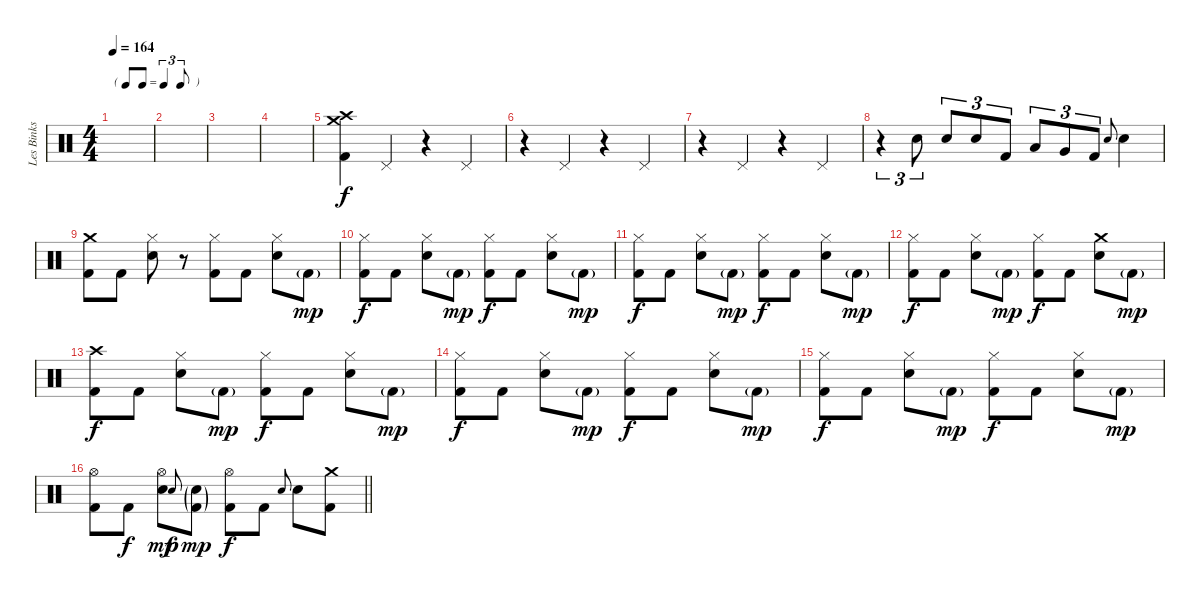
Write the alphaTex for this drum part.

\track ("Les Binks" "Les Binks") {instrument percussion}
\staff {score}
\articulation defaults
\ts (4 4)
\tf triplet8th
\tempo 164
\clef neutral
\ks c
|
|
|
|
("Crash high (hit)" "Crash medium (hit)" "Kick (hit) 2").4 "Pedal Hi-Hat (hit)".4 r.4 "Pedal Hi-Hat (hit)".4 |
r.4 "Pedal Hi-Hat (hit)".4 r.4 "Pedal Hi-Hat (hit)".4 |
r.4 "Pedal Hi-Hat (hit)".4 r.4 "Pedal Hi-Hat (hit)".4 |
r.4{tu (3 2)} "Electric Snare (hit)".8{tu (3 2)} "Electric Snare (hit)".8{tu (3 2)} "Electric Snare (hit)".8{tu (3 2)} "Kick (hit) 2".8{tu (3 2)} "Low Tom (hit)".8{tu (3 2)} "Very Low Tom (hit)".8{tu (3 2)} "Kick (hit) 2".8{tu (3 2)} "Electric Snare (hit)".8{gr onbeat} "Electric Snare (hit)".4 |
("Crash medium (hit)" "Kick (hit) 2").8 "Kick (hit) 2".8 ("Hi-Hat (closed)" "Electric Snare (hit)").8 r.8 ("Hi-Hat (closed)" "Kick (hit) 2").8 "Kick (hit) 2".8 ("Hi-Hat (closed)" "Electric Snare (hit)").8 "Kick (hit) 2"{g}.8{dy mp} |
("Hi-Hat (closed)" "Kick (hit) 2").8{dy f} "Kick (hit) 2".8 ("Hi-Hat (closed)" "Electric Snare (hit)").8 "Kick (hit) 2"{g}.8{dy mp} ("Hi-Hat (closed)" "Kick (hit) 2").8{dy f} "Kick (hit) 2".8 ("Hi-Hat (closed)" "Electric Snare (hit)").8 "Kick (hit) 2"{g}.8{dy mp} |
("Hi-Hat (closed)" "Kick (hit) 2").8{dy f} "Kick (hit) 2".8 ("Hi-Hat (closed)" "Electric Snare (hit)").8 "Kick (hit) 2"{g}.8{dy mp} ("Hi-Hat (closed)" "Kick (hit) 2").8{dy f} "Kick (hit) 2".8 ("Hi-Hat (closed)" "Electric Snare (hit)").8 "Kick (hit) 2"{g}.8{dy mp} |
("Hi-Hat (closed)" "Kick (hit) 2").8{dy f} "Kick (hit) 2".8 ("Hi-Hat (closed)" "Electric Snare (hit)").8 "Kick (hit) 2"{g}.8{dy mp} ("Hi-Hat (closed)" "Kick (hit) 2").8{dy f} "Kick (hit) 2".8 ("Crash medium (hit)" "Electric Snare (hit)").8 "Kick (hit) 2"{g}.8{dy mp} |
("Crash high (hit)" "Kick (hit) 2").8{dy f} "Kick (hit) 2".8 ("Hi-Hat (closed)" "Electric Snare (hit)").8 "Kick (hit) 2"{g}.8{dy mp} ("Hi-Hat (closed)" "Kick (hit) 2").8{dy f} "Kick (hit) 2".8 ("Hi-Hat (closed)" "Electric Snare (hit)").8 "Kick (hit) 2"{g}.8{dy mp} |
("Hi-Hat (closed)" "Kick (hit) 2").8{dy f} "Kick (hit) 2".8 ("Hi-Hat (closed)" "Electric Snare (hit)").8 "Kick (hit) 2"{g}.8{dy mp} ("Hi-Hat (closed)" "Kick (hit) 2").8{dy f} "Kick (hit) 2".8 ("Hi-Hat (closed)" "Electric Snare (hit)").8 "Kick (hit) 2"{g}.8{dy mp} |
("Hi-Hat (closed)" "Kick (hit) 2").8{dy f} "Kick (hit) 2".8 ("Hi-Hat (closed)" "Electric Snare (hit)").8 "Kick (hit) 2"{g}.8{dy mp} ("Hi-Hat (closed)" "Kick (hit) 2").8{dy f} "Kick (hit) 2".8 ("Hi-Hat (closed)" "Electric Snare (hit)").8 "Kick (hit) 2"{g}.8{dy mp} |
\barLineRight lightlight
("Hi-Hat (open)" "Kick (hit) 2").8 "Kick (hit) 2".8{dy f} ("Hi-Hat (open)" "Electric Snare (hit)").8{dy mf} "Electric Snare (hit)".8{gr onbeat dy p} ("Electric Snare (hit)"{g} "Kick (hit) 2"{g}).8{dy mp} ("Hi-Hat (open)" "Kick (hit) 2").8{dy f} "Kick (hit) 2".8 "Electric Snare (hit)".8{gr onbeat} "Electric Snare (hit)".8 ("Crash medium (hit)" "Kick (hit) 2").8
